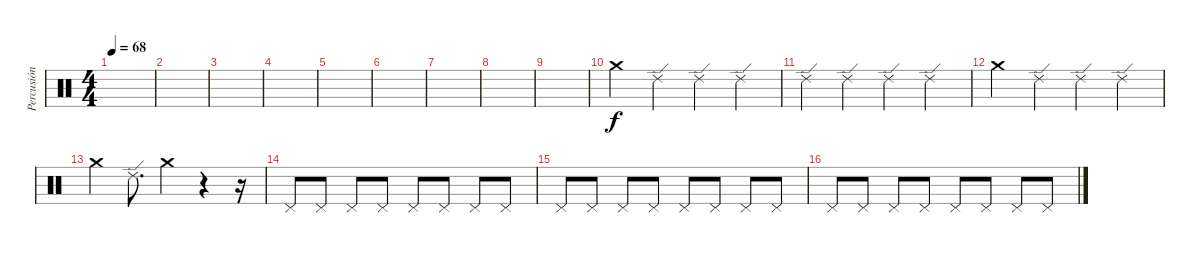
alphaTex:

\track ("Percusión" "Percusión") {instrument percussion}
\staff {score}
\articulation defaults
\ts (4 4)
\tempo 68
\clef neutral
\ks c
|
|
|
|
|
|
|
|
|
"Crash medium (hit)".4 "Ride (edge) 2".4 "Ride (edge) 2".4 "Ride (edge) 2".4 |
"Ride (edge) 2".4 "Ride (edge) 2".4 "Ride (edge) 2".4 "Ride (edge) 2".4 |
"Crash medium (hit)".4 "Ride (edge) 2".4 "Ride (edge) 2".4 "Ride (edge) 2".4 |
"Crash medium (hit)".4 "Ride (edge) 2".8{d} "Crash medium (hit)".4 r.4 r.16 |
"Pedal Hi-Hat (hit)".8 "Pedal Hi-Hat (hit)".8 "Pedal Hi-Hat (hit)".8 "Pedal Hi-Hat (hit)".8 "Pedal Hi-Hat (hit)".8 "Pedal Hi-Hat (hit)".8 "Pedal Hi-Hat (hit)".8 "Pedal Hi-Hat (hit)".8 |
"Pedal Hi-Hat (hit)".8 "Pedal Hi-Hat (hit)".8 "Pedal Hi-Hat (hit)".8 "Pedal Hi-Hat (hit)".8 "Pedal Hi-Hat (hit)".8 "Pedal Hi-Hat (hit)".8 "Pedal Hi-Hat (hit)".8 "Pedal Hi-Hat (hit)".8 |
"Pedal Hi-Hat (hit)".8 "Pedal Hi-Hat (hit)".8 "Pedal Hi-Hat (hit)".8 "Pedal Hi-Hat (hit)".8 "Pedal Hi-Hat (hit)".8 "Pedal Hi-Hat (hit)".8 "Pedal Hi-Hat (hit)".8 "Pedal Hi-Hat (hit)".8
